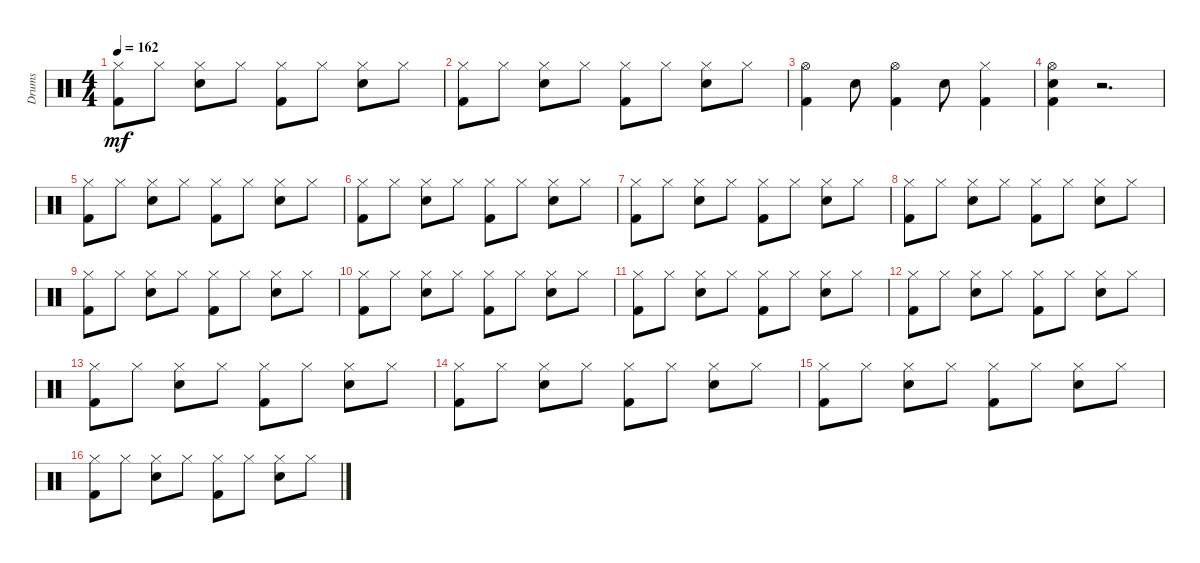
\track ("Drums" "Drums") {instrument percussion}
\staff {score}
\articulation defaults
\ts (4 4)
\tempo 162
\clef neutral
\ks c
("Hi-Hat (closed)" "Kick (hit) 2").8{dy mf} "Hi-Hat (closed)".8 ("Hi-Hat (closed)" "Snare (hit) 2").8 "Hi-Hat (closed)".8 ("Hi-Hat (closed)" "Kick (hit) 2").8 "Hi-Hat (closed)".8 ("Hi-Hat (closed)" "Snare (hit) 2").8 "Hi-Hat (closed)".8 |
("Hi-Hat (closed)" "Kick (hit) 2").8 "Hi-Hat (closed)".8 ("Hi-Hat (closed)" "Snare (hit) 2").8 "Hi-Hat (closed)".8 ("Hi-Hat (closed)" "Kick (hit) 2").8 "Hi-Hat (closed)".8 ("Hi-Hat (closed)" "Snare (hit) 2").8 "Hi-Hat (closed)".8 |
("Hi-Hat (open)" "Kick (hit) 2").4 "Snare (hit) 2".8 ("Hi-Hat (open)" "Kick (hit) 2").4 "Snare (hit) 2".8 ("Hi-Hat (closed)" "Kick (hit) 2").4 |
("Hi-Hat (open)" "Kick (hit) 2" "Snare (hit) 2").4 r.2{d} |
("Hi-Hat (closed)" "Kick (hit) 2").8 "Hi-Hat (closed)".8 ("Hi-Hat (closed)" "Snare (hit) 2").8 "Hi-Hat (closed)".8 ("Hi-Hat (closed)" "Kick (hit) 2").8 "Hi-Hat (closed)".8 ("Hi-Hat (closed)" "Snare (hit) 2").8 "Hi-Hat (closed)".8 |
("Hi-Hat (closed)" "Kick (hit) 2").8 "Hi-Hat (closed)".8 ("Hi-Hat (closed)" "Snare (hit) 2").8 "Hi-Hat (closed)".8 ("Hi-Hat (closed)" "Kick (hit) 2").8 "Hi-Hat (closed)".8 ("Hi-Hat (closed)" "Snare (hit) 2").8 "Hi-Hat (closed)".8 |
("Hi-Hat (closed)" "Kick (hit) 2").8 "Hi-Hat (closed)".8 ("Hi-Hat (closed)" "Snare (hit) 2").8 "Hi-Hat (closed)".8 ("Hi-Hat (closed)" "Kick (hit) 2").8 "Hi-Hat (closed)".8 ("Hi-Hat (closed)" "Snare (hit) 2").8 "Hi-Hat (closed)".8 |
("Hi-Hat (closed)" "Kick (hit) 2").8 "Hi-Hat (closed)".8 ("Hi-Hat (closed)" "Snare (hit) 2").8 "Hi-Hat (closed)".8 ("Hi-Hat (closed)" "Kick (hit) 2").8 "Hi-Hat (closed)".8 ("Hi-Hat (closed)" "Snare (hit) 2").8 "Hi-Hat (closed)".8 |
("Hi-Hat (closed)" "Kick (hit) 2").8 "Hi-Hat (closed)".8 ("Hi-Hat (closed)" "Snare (hit) 2").8 "Hi-Hat (closed)".8 ("Hi-Hat (closed)" "Kick (hit) 2").8 "Hi-Hat (closed)".8 ("Hi-Hat (closed)" "Snare (hit) 2").8 "Hi-Hat (closed)".8 |
("Hi-Hat (closed)" "Kick (hit) 2").8 "Hi-Hat (closed)".8 ("Hi-Hat (closed)" "Snare (hit) 2").8 "Hi-Hat (closed)".8 ("Hi-Hat (closed)" "Kick (hit) 2").8 "Hi-Hat (closed)".8 ("Hi-Hat (closed)" "Snare (hit) 2").8 "Hi-Hat (closed)".8 |
("Hi-Hat (closed)" "Kick (hit) 2").8 "Hi-Hat (closed)".8 ("Hi-Hat (closed)" "Snare (hit) 2").8 "Hi-Hat (closed)".8 ("Hi-Hat (closed)" "Kick (hit) 2").8 "Hi-Hat (closed)".8 ("Hi-Hat (closed)" "Snare (hit) 2").8 "Hi-Hat (closed)".8 |
("Hi-Hat (closed)" "Kick (hit) 2").8 "Hi-Hat (closed)".8 ("Hi-Hat (closed)" "Snare (hit) 2").8 "Hi-Hat (closed)".8 ("Hi-Hat (closed)" "Kick (hit) 2").8 "Hi-Hat (closed)".8 ("Hi-Hat (closed)" "Snare (hit) 2").8 "Hi-Hat (closed)".8 |
("Hi-Hat (closed)" "Kick (hit) 2").8 "Hi-Hat (closed)".8 ("Hi-Hat (closed)" "Snare (hit) 2").8 "Hi-Hat (closed)".8 ("Hi-Hat (closed)" "Kick (hit) 2").8 "Hi-Hat (closed)".8 ("Hi-Hat (closed)" "Snare (hit) 2").8 "Hi-Hat (closed)".8 |
("Hi-Hat (closed)" "Kick (hit) 2").8 "Hi-Hat (closed)".8 ("Hi-Hat (closed)" "Snare (hit) 2").8 "Hi-Hat (closed)".8 ("Hi-Hat (closed)" "Kick (hit) 2").8 "Hi-Hat (closed)".8 ("Hi-Hat (closed)" "Snare (hit) 2").8 "Hi-Hat (closed)".8 |
("Hi-Hat (closed)" "Kick (hit) 2").8 "Hi-Hat (closed)".8 ("Hi-Hat (closed)" "Snare (hit) 2").8 "Hi-Hat (closed)".8 ("Hi-Hat (closed)" "Kick (hit) 2").8 "Hi-Hat (closed)".8 ("Hi-Hat (closed)" "Snare (hit) 2").8 "Hi-Hat (closed)".8 |
("Hi-Hat (closed)" "Kick (hit) 2").8 "Hi-Hat (closed)".8 ("Hi-Hat (closed)" "Snare (hit) 2").8 "Hi-Hat (closed)".8 ("Hi-Hat (closed)" "Kick (hit) 2").8 "Hi-Hat (closed)".8 ("Hi-Hat (closed)" "Snare (hit) 2").8 "Hi-Hat (closed)".8
